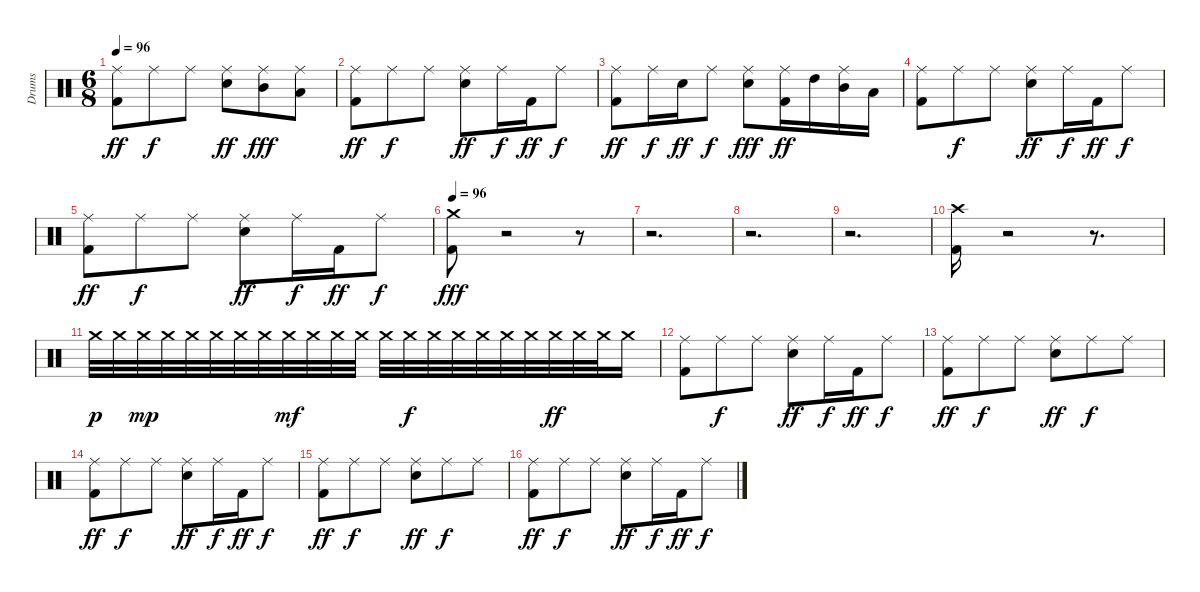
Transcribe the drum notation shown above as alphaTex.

\track ("Drums" "Drums") {instrument percussion}
\staff {score}
\articulation defaults
\ts (6 8)
\tempo 96
\clef neutral
\ks c
("Ride (middle)" "Kick (hit) 2").8{dy ff} "Ride (middle)".8{dy f} "Ride (middle)".8 ("Ride (middle)" "Electric Snare (hit)").8{dy ff} ("Mid Tom (hit)" "Ride (middle)").8{dy fff} ("Low Tom (hit)" "Ride (middle)").8 |
("Ride (middle)" "Kick (hit) 2").8{dy ff} "Ride (middle)".8{dy f} "Ride (middle)".8 ("Ride (middle)" "Electric Snare (hit)").8{dy ff} "Ride (middle)".16{dy f} "Kick (hit) 2".16{dy ff} "Ride (middle)".8{dy f} |
("Ride (middle)" "Kick (hit) 2").8{dy ff} "Ride (middle)".16{dy f} "Electric Snare (hit)".16{dy ff} "Ride (middle)".8{dy f} ("Ride (middle)" "Electric Snare (hit)").8{dy fff} ("Kick (hit) 2" "Ride (middle)").16{dy ff} "High Tom (hit)".16 ("Mid Tom (hit)" "Ride (middle)").16 "Low Tom (hit)".16 |
("Ride (middle)" "Kick (hit) 2").8 "Ride (middle)".8{dy f} "Ride (middle)".8 ("Ride (middle)" "Electric Snare (hit)").8{dy ff} "Ride (middle)".16{dy f} "Kick (hit) 2".16{dy ff} "Ride (middle)".8{dy f} |
("Ride (middle)" "Kick (hit) 2").8{dy ff} "Ride (middle)".8{dy f} "Ride (middle)".8 ("Ride (middle)" "Electric Snare (hit)").8{dy ff} "Ride (middle)".16{dy f} "Kick (hit) 2".16{dy ff} "Ride (middle)".8{dy f} |
\tempo 96
("Kick (hit) 2" "Crash medium (hit)").8{dy fff} r.2 r.8 |
r.2{d} |
r.2{d} |
r.2{d} |
("Kick (hit) 2" "Crash high (hit)").16 r.2 r.8{d} |
"Crash medium (hit)".32{dy p} "Crash medium (hit)".32 "Crash medium (hit)".32{dy mp} "Crash medium (hit)".32 "Crash medium (hit)".32 "Crash medium (hit)".32 "Crash medium (hit)".32 "Crash medium (hit)".32 "Crash medium (hit)".32{dy mf} "Crash medium (hit)".32 "Crash medium (hit)".32 "Crash medium (hit)".32 "Crash medium (hit)".32 "Crash medium (hit)".32{dy f} "Crash medium (hit)".32 "Crash medium (hit)".32 "Crash medium (hit)".32 "Crash medium (hit)".32 "Crash medium (hit)".32 "Crash medium (hit)".32{dy ff} "Crash medium (hit)".32 "Crash medium (hit)".32 "Crash medium (hit)".16 |
("Ride (middle)" "Kick (hit) 2").8 "Ride (middle)".8{dy f} "Ride (middle)".8 ("Ride (middle)" "Electric Snare (hit)").8{dy ff} "Ride (middle)".16{dy f} "Kick (hit) 2".16{dy ff} "Ride (middle)".8{dy f} |
("Ride (middle)" "Kick (hit) 2").8{dy ff} "Ride (middle)".8{dy f} "Ride (middle)".8 ("Ride (middle)" "Electric Snare (hit)").8{dy ff} "Ride (middle)".8{dy f} "Ride (middle)".8 |
("Kick (hit) 2" "Ride (middle)").8{dy ff} "Ride (middle)".8{dy f} "Ride (middle)".8 ("Electric Snare (hit)" "Ride (middle)").8{dy ff} "Ride (middle)".16{dy f} "Kick (hit) 2".16{dy ff} "Ride (middle)".8{dy f} |
("Kick (hit) 2" "Ride (middle)").8{dy ff} "Ride (middle)".8{dy f} "Ride (middle)".8 ("Electric Snare (hit)" "Ride (middle)").8{dy ff} "Ride (middle)".8{dy f} "Ride (middle)".8 |
("Kick (hit) 2" "Ride (middle)").8{dy ff} "Ride (middle)".8{dy f} "Ride (middle)".8 ("Electric Snare (hit)" "Ride (middle)").8{dy ff} "Ride (middle)".16{dy f} "Kick (hit) 2".16{dy ff} "Ride (middle)".8{dy f}
